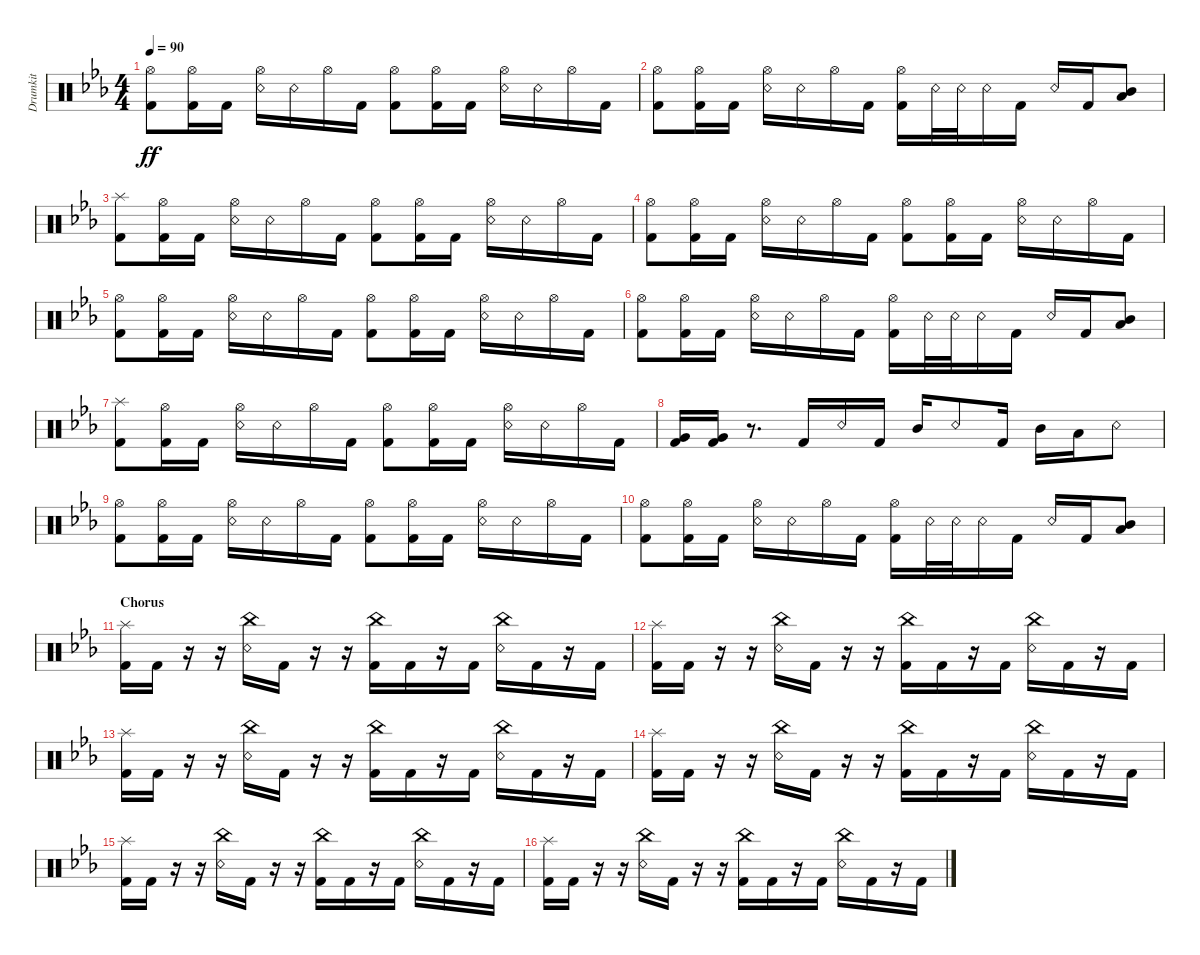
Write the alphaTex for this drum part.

\track ("Drumkit" "Drumkit") {instrument percussion}
\staff {score}
\articulation defaults
\ts (4 4)
\tempo 90
\clef neutral
\ks cminor
("Kick (hit) 2" "Hi-Hat (open)").8{dy ff} ("Kick (hit) 2" "Hi-Hat (open)").16 "Kick (hit) 2".16 ("Snare (rim shot)" "Hi-Hat (open)").16 "Snare (rim shot)".16 "Hi-Hat (open)".16 "Kick (hit) 2".16 ("Kick (hit) 2" "Hi-Hat (open)").8 ("Kick (hit) 2" "Hi-Hat (open)").16 "Kick (hit) 2".16 ("Snare (rim shot)" "Hi-Hat (open)").16 "Snare (rim shot)".16 "Hi-Hat (open)".16 "Kick (hit) 2".16 |
("Kick (hit) 2" "Hi-Hat (open)").8 ("Kick (hit) 2" "Hi-Hat (open)").16 "Kick (hit) 2".16 ("Snare (rim shot)" "Hi-Hat (open)").16 "Snare (rim shot)".16 "Hi-Hat (open)".16 "Kick (hit) 2".16 ("Kick (hit) 2" "Hi-Hat (open)").16 "Snare (rim shot)".32 "Snare (rim shot)".32 "Snare (rim shot)".16 "Kick (hit) 2".16 "Snare (rim shot)".16 "Kick (hit) 2".16 ("Mid Tom (hit)" "Low Tom (hit)").8 |
("Splash (hit)" "Kick (hit) 2").8 ("Kick (hit) 2" "Hi-Hat (open)").16 "Kick (hit) 2".16 ("Snare (rim shot)" "Hi-Hat (open)").16 "Snare (rim shot)".16 "Hi-Hat (open)".16 "Kick (hit) 2".16 ("Kick (hit) 2" "Hi-Hat (open)").8 ("Kick (hit) 2" "Hi-Hat (open)").16 "Kick (hit) 2".16 ("Snare (rim shot)" "Hi-Hat (open)").16 "Snare (rim shot)".16 "Hi-Hat (open)".16 "Kick (hit) 2".16 |
("Kick (hit) 2" "Hi-Hat (open)").8 ("Kick (hit) 2" "Hi-Hat (open)").16 "Kick (hit) 2".16 ("Snare (rim shot)" "Hi-Hat (open)").16 "Snare (rim shot)".16 "Hi-Hat (open)".16 "Kick (hit) 2".16 ("Kick (hit) 2" "Hi-Hat (open)").8 ("Kick (hit) 2" "Hi-Hat (open)").16 "Kick (hit) 2".16 ("Snare (rim shot)" "Hi-Hat (open)").16 "Snare (rim shot)".16 "Hi-Hat (open)".16 "Kick (hit) 2".16 |
("Kick (hit) 2" "Hi-Hat (open)").8 ("Kick (hit) 2" "Hi-Hat (open)").16 "Kick (hit) 2".16 ("Snare (rim shot)" "Hi-Hat (open)").16 "Snare (rim shot)".16 "Hi-Hat (open)".16 "Kick (hit) 2".16 ("Kick (hit) 2" "Hi-Hat (open)").8 ("Kick (hit) 2" "Hi-Hat (open)").16 "Kick (hit) 2".16 ("Snare (rim shot)" "Hi-Hat (open)").16 "Snare (rim shot)".16 "Hi-Hat (open)".16 "Kick (hit) 2".16 |
("Kick (hit) 2" "Hi-Hat (open)").8 ("Kick (hit) 2" "Hi-Hat (open)").16 "Kick (hit) 2".16 ("Snare (rim shot)" "Hi-Hat (open)").16 "Snare (rim shot)".16 "Hi-Hat (open)".16 "Kick (hit) 2".16 ("Kick (hit) 2" "Hi-Hat (open)").16 "Snare (rim shot)".32 "Snare (rim shot)".32 "Snare (rim shot)".16 "Kick (hit) 2".16 "Snare (rim shot)".16 "Kick (hit) 2".16 ("Mid Tom (hit)" "Low Tom (hit)").8 |
("Splash (hit)" "Kick (hit) 2").8 ("Kick (hit) 2" "Hi-Hat (open)").16 "Kick (hit) 2".16 ("Snare (rim shot)" "Hi-Hat (open)").16 "Snare (rim shot)".16 "Hi-Hat (open)".16 "Kick (hit) 2".16 ("Kick (hit) 2" "Hi-Hat (open)").8 ("Kick (hit) 2" "Hi-Hat (open)").16 "Kick (hit) 2".16 ("Snare (rim shot)" "Hi-Hat (open)").16 "Snare (rim shot)".16 "Hi-Hat (open)".16 "Kick (hit) 2".16 |
("Kick (hit) 2" "Very Low Tom (hit)").16 ("Kick (hit) 2" "Very Low Tom (hit)").16 r.8{d} "Kick (hit) 2".16 "Snare (rim shot)".16 "Kick (hit) 2".16 "Mid Tom (hit)".16 "Snare (rim shot)".8 "Kick (hit) 2".16 "Mid Tom (hit)".16 "Low Tom (hit)".16 "Snare (rim shot)".8 |
("Kick (hit) 2" "Hi-Hat (open)").8 ("Kick (hit) 2" "Hi-Hat (open)").16 "Kick (hit) 2".16 ("Snare (rim shot)" "Hi-Hat (open)").16 "Snare (rim shot)".16 "Hi-Hat (open)".16 "Kick (hit) 2".16 ("Kick (hit) 2" "Hi-Hat (open)").8 ("Kick (hit) 2" "Hi-Hat (open)").16 "Kick (hit) 2".16 ("Snare (rim shot)" "Hi-Hat (open)").16 "Snare (rim shot)".16 "Hi-Hat (open)".16 "Kick (hit) 2".16 |
("Kick (hit) 2" "Hi-Hat (open)").8 ("Kick (hit) 2" "Hi-Hat (open)").16 "Kick (hit) 2".16 ("Snare (rim shot)" "Hi-Hat (open)").16 "Snare (rim shot)".16 "Hi-Hat (open)".16 "Kick (hit) 2".16 ("Kick (hit) 2" "Hi-Hat (open)").16 "Snare (rim shot)".32 "Snare (rim shot)".32 "Snare (rim shot)".16 "Kick (hit) 2".16 "Snare (rim shot)".16 "Kick (hit) 2".16 ("Mid Tom (hit)" "Low Tom (hit)").8 |
\section ("" "Chorus")
("Kick (hit) 2" "Splash (hit)").16 "Kick (hit) 2".16 r.16 r.16 ("China (hit)" "Snare (rim shot)").16 "Kick (hit) 2".16 r.16 r.16 ("China (hit)" "Kick (hit) 2").16 "Kick (hit) 2".16 r.16 "Kick (hit) 2".16 ("China (hit)" "Snare (rim shot)").16 "Kick (hit) 2".16 r.16 "Kick (hit) 2".16 |
("Kick (hit) 2" "Splash (hit)").16 "Kick (hit) 2".16 r.16 r.16 ("China (hit)" "Snare (rim shot)").16 "Kick (hit) 2".16 r.16 r.16 ("China (hit)" "Kick (hit) 2").16 "Kick (hit) 2".16 r.16 "Kick (hit) 2".16 ("China (hit)" "Snare (rim shot)").16 "Kick (hit) 2".16 r.16 "Kick (hit) 2".16 |
("Kick (hit) 2" "Splash (hit)").16 "Kick (hit) 2".16 r.16 r.16 ("China (hit)" "Snare (rim shot)").16 "Kick (hit) 2".16 r.16 r.16 ("China (hit)" "Kick (hit) 2").16 "Kick (hit) 2".16 r.16 "Kick (hit) 2".16 ("China (hit)" "Snare (rim shot)").16 "Kick (hit) 2".16 r.16 "Kick (hit) 2".16 |
("Kick (hit) 2" "Splash (hit)").16 "Kick (hit) 2".16 r.16 r.16 ("China (hit)" "Snare (rim shot)").16 "Kick (hit) 2".16 r.16 r.16 ("China (hit)" "Kick (hit) 2").16 "Kick (hit) 2".16 r.16 "Kick (hit) 2".16 ("China (hit)" "Snare (rim shot)").16 "Kick (hit) 2".16 r.16 "Kick (hit) 2".16 |
("Kick (hit) 2" "Splash (hit)").16 "Kick (hit) 2".16 r.16 r.16 ("China (hit)" "Snare (rim shot)").16 "Kick (hit) 2".16 r.16 r.16 ("China (hit)" "Kick (hit) 2").16 "Kick (hit) 2".16 r.16 "Kick (hit) 2".16 ("China (hit)" "Snare (rim shot)").16 "Kick (hit) 2".16 r.16 "Kick (hit) 2".16 |
("Kick (hit) 2" "Splash (hit)").16 "Kick (hit) 2".16 r.16 r.16 ("China (hit)" "Snare (rim shot)").16 "Kick (hit) 2".16 r.16 r.16 ("China (hit)" "Kick (hit) 2").16 "Kick (hit) 2".16 r.16 "Kick (hit) 2".16 ("China (hit)" "Snare (rim shot)").16 "Kick (hit) 2".16 r.16 "Kick (hit) 2".16
